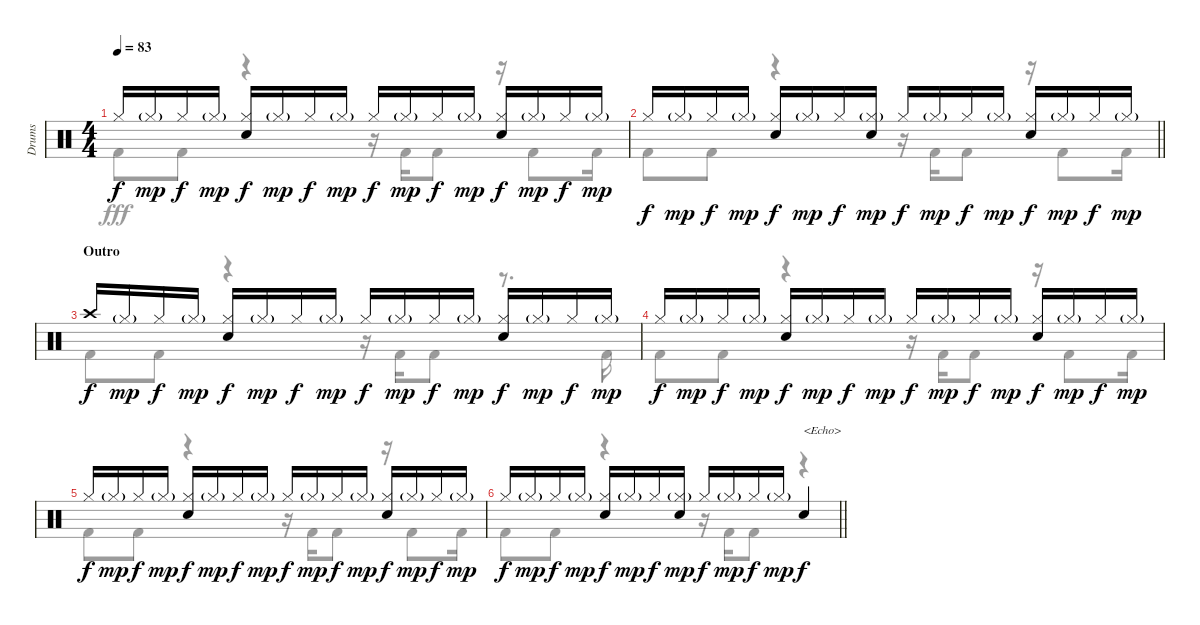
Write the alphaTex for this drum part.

\track ("Drums" "Drums") {instrument percussion}
\staff {score}
\articulation defaults
\voice
\ts (4 4)
\tempo 83
\clef neutral
\ks c "Hi-Hat (closed)".16{dy f} "Hi-Hat (closed)"{g}.16{dy mp} "Hi-Hat (closed)".16{dy f} "Hi-Hat (closed)"{g}.16{dy mp}
("Hi-Hat (closed)" "Snare (hit) 2").16{dy f} "Hi-Hat (closed)"{g}.16{dy mp} "Hi-Hat (closed)".16{dy f} "Hi-Hat (closed)"{g}.16{dy mp} "Hi-Hat (closed)".16{dy f} "Hi-Hat (closed)"{g}.16{dy mp} "Hi-Hat (closed)".16{dy f} "Hi-Hat (closed)"{g}.16{dy mp} ("Hi-Hat (closed)" "Snare (hit) 2").16{dy f} "Hi-Hat (closed)"{g}.16{dy mp} "Hi-Hat (closed)".16{dy f} "Hi-Hat (closed)"{g}.16{dy mp} |
\barLineRight lightlight "Hi-Hat (closed)".16{dy f} "Hi-Hat (closed)"{g}.16{dy mp} "Hi-Hat (closed)".16{dy f} "Hi-Hat (closed)"{g}.16{dy mp}
("Hi-Hat (closed)" "Snare (hit) 2").16{dy f} "Hi-Hat (closed)"{g}.16{dy mp} "Hi-Hat (closed)".16{dy f} ("Hi-Hat (closed)"{g} "Snare (hit) 2").16{dy mp} "Hi-Hat (closed)".16{dy f} "Hi-Hat (closed)"{g}.16{dy mp} "Hi-Hat (closed)".16{dy f} "Hi-Hat (closed)"{g}.16{dy mp} ("Hi-Hat (closed)" "Snare (hit) 2").16{dy f} "Hi-Hat (closed)"{g}.16{dy mp} "Hi-Hat (closed)".16{dy f} "Hi-Hat (closed)"{g}.16{dy mp} |
\section ("" "Outro")
"Crash high (hit)".16{dy f} "Hi-Hat (closed)"{g}.16{dy mp} "Hi-Hat (closed)".16{dy f} "Hi-Hat (closed)"{g}.16{dy mp} ("Hi-Hat (closed)" "Snare (hit) 2").16{dy f} "Hi-Hat (closed)"{g}.16{dy mp} "Hi-Hat (closed)".16{dy f} "Hi-Hat (closed)"{g}.16{dy mp} "Hi-Hat (closed)".16{dy f} "Hi-Hat (closed)"{g}.16{dy mp} "Hi-Hat (closed)".16{dy f} "Hi-Hat (closed)"{g}.16{dy mp} ("Hi-Hat (closed)" "Snare (hit) 2").16{dy f} "Hi-Hat (closed)"{g}.16{dy mp} "Hi-Hat (closed)".16{dy f} "Hi-Hat (closed)"{g}.16{dy mp} |
"Hi-Hat (closed)".16{dy f} "Hi-Hat (closed)"{g}.16{dy mp} "Hi-Hat (closed)".16{dy f} "Hi-Hat (closed)"{g}.16{dy mp} ("Hi-Hat (closed)" "Snare (hit) 2").16{dy f} "Hi-Hat (closed)"{g}.16{dy mp} "Hi-Hat (closed)".16{dy f} "Hi-Hat (closed)"{g}.16{dy mp} "Hi-Hat (closed)".16{dy f} "Hi-Hat (closed)"{g}.16{dy mp} "Hi-Hat (closed)".16{dy f} "Hi-Hat (closed)"{g}.16{dy mp} ("Hi-Hat (closed)" "Snare (hit) 2").16{dy f} "Hi-Hat (closed)"{g}.16{dy mp} "Hi-Hat (closed)".16{dy f} "Hi-Hat (closed)"{g}.16{dy mp} |
"Hi-Hat (closed)".16{dy f} "Hi-Hat (closed)"{g}.16{dy mp} "Hi-Hat (closed)".16{dy f} "Hi-Hat (closed)"{g}.16{dy mp} ("Hi-Hat (closed)" "Snare (hit) 2").16{dy f} "Hi-Hat (closed)"{g}.16{dy mp} "Hi-Hat (closed)".16{dy f} "Hi-Hat (closed)"{g}.16{dy mp} "Hi-Hat (closed)".16{dy f} "Hi-Hat (closed)"{g}.16{dy mp} "Hi-Hat (closed)".16{dy f} "Hi-Hat (closed)"{g}.16{dy mp} ("Hi-Hat (closed)" "Snare (hit) 2").16{dy f} "Hi-Hat (closed)"{g}.16{dy mp} "Hi-Hat (closed)".16{dy f} "Hi-Hat (closed)"{g}.16{dy mp} |
\barLineRight lightlight "Hi-Hat (closed)".16{dy f} "Hi-Hat (closed)"{g}.16{dy mp} "Hi-Hat (closed)".16{dy f} "Hi-Hat (closed)"{g}.16{dy mp}
("Hi-Hat (closed)" "Snare (hit) 2").16{dy f} "Hi-Hat (closed)"{g}.16{dy mp} "Hi-Hat (closed)".16{dy f} ("Hi-Hat (closed)"{g} "Snare (hit) 2").16{dy mp} "Hi-Hat (closed)".16{dy f} "Hi-Hat (closed)"{g}.16{dy mp} "Hi-Hat (closed)".16{dy f} "Hi-Hat (closed)"{g}.16{dy mp} "Snare (hit) 2".4{txt "<Echo>" dy f}
\voice
\clef neutral
\ottava regular
\simile none
\ks c "Kick (hit) 2".8{dy fff} "Kick (hit) 2".8
r.4 r.16 "Kick (hit) 2".16 "Kick (hit) 2".8 r.16 "Kick (hit) 2".8 "Kick (hit) 2".16 |
\barLineRight lightlight "Kick (hit) 2".8 "Kick (hit) 2".8
r.4 r.16 "Kick (hit) 2".16 "Kick (hit) 2".8 r.16 "Kick (hit) 2".8 "Kick (hit) 2".16 |
"Kick (hit) 2".8 "Kick (hit) 2".8 r.4 r.16 "Kick (hit) 2".16 "Kick (hit) 2".8 r.8{d} "Kick (hit) 2".16 |
"Kick (hit) 2".8 "Kick (hit) 2".8 r.4 r.16 "Kick (hit) 2".16 "Kick (hit) 2".8 r.16 "Kick (hit) 2".8 "Kick (hit) 2".16 |
"Kick (hit) 2".8 "Kick (hit) 2".8 r.4 r.16 "Kick (hit) 2".16 "Kick (hit) 2".8 r.16 "Kick (hit) 2".8 "Kick (hit) 2".16 |
\barLineRight lightlight "Kick (hit) 2".8 "Kick (hit) 2".8
r.4 r.16 "Kick (hit) 2".16 "Kick (hit) 2".8 r.4
